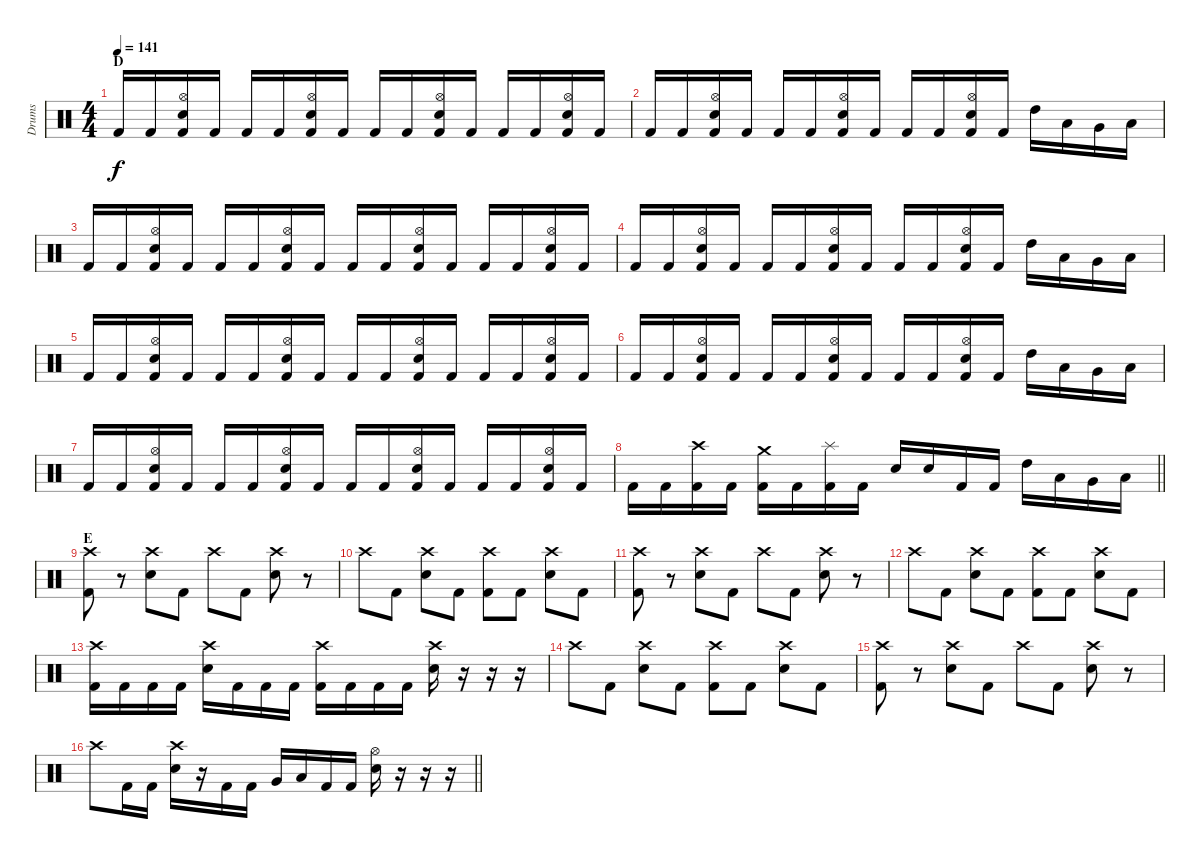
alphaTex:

\track ("Drums" "Drums") {instrument percussion}
\staff {score}
\articulation defaults
\ts (4 4)
\section ("" "D")
\tempo 141
\clef neutral
\ks c "Kick (hit) 2".16{dy f} "Kick (hit) 2".16
("Hi-Hat (open)" "Electric Snare (hit)" "Kick (hit) 2").16 "Kick (hit) 2".16 "Kick (hit) 2".16 "Kick (hit) 2".16 ("Hi-Hat (open)" "Electric Snare (hit)" "Kick (hit) 2").16 "Kick (hit) 2".16 "Kick (hit) 2".16 "Kick (hit) 2".16 ("Hi-Hat (open)" "Electric Snare (hit)" "Kick (hit) 2").16 "Kick (hit) 2".16 "Kick (hit) 2".16 "Kick (hit) 2".16 ("Hi-Hat (open)" "Electric Snare (hit)" "Kick (hit) 2").16 "Kick (hit) 2".16 |
"Kick (hit) 2".16 "Kick (hit) 2".16 ("Hi-Hat (open)" "Electric Snare (hit)" "Kick (hit) 2").16 "Kick (hit) 2".16 "Kick (hit) 2".16 "Kick (hit) 2".16 ("Hi-Hat (open)" "Electric Snare (hit)" "Kick (hit) 2").16 "Kick (hit) 2".16 "Kick (hit) 2".16 "Kick (hit) 2".16 ("Hi-Hat (open)" "Electric Snare (hit)" "Kick (hit) 2").16 "Kick (hit) 2".16 "High Tom (hit)".16 "Low Tom (hit)".16 "Very Low Tom (hit)".16 "Low Floor Tom (hit)".16 |
"Kick (hit) 2".16 "Kick (hit) 2".16 ("Hi-Hat (open)" "Electric Snare (hit)" "Kick (hit) 2").16 "Kick (hit) 2".16 "Kick (hit) 2".16 "Kick (hit) 2".16 ("Hi-Hat (open)" "Electric Snare (hit)" "Kick (hit) 2").16 "Kick (hit) 2".16 "Kick (hit) 2".16 "Kick (hit) 2".16 ("Hi-Hat (open)" "Electric Snare (hit)" "Kick (hit) 2").16 "Kick (hit) 2".16 "Kick (hit) 2".16 "Kick (hit) 2".16 ("Hi-Hat (open)" "Electric Snare (hit)" "Kick (hit) 2").16 "Kick (hit) 2".16 |
"Kick (hit) 2".16 "Kick (hit) 2".16 ("Hi-Hat (open)" "Electric Snare (hit)" "Kick (hit) 2").16 "Kick (hit) 2".16 "Kick (hit) 2".16 "Kick (hit) 2".16 ("Hi-Hat (open)" "Electric Snare (hit)" "Kick (hit) 2").16 "Kick (hit) 2".16 "Kick (hit) 2".16 "Kick (hit) 2".16 ("Hi-Hat (open)" "Electric Snare (hit)" "Kick (hit) 2").16 "Kick (hit) 2".16 "High Tom (hit)".16 "Low Tom (hit)".16 "Very Low Tom (hit)".16 "Low Floor Tom (hit)".16 |
"Kick (hit) 2".16 "Kick (hit) 2".16 ("Hi-Hat (open)" "Electric Snare (hit)" "Kick (hit) 2").16 "Kick (hit) 2".16 "Kick (hit) 2".16 "Kick (hit) 2".16 ("Hi-Hat (open)" "Electric Snare (hit)" "Kick (hit) 2").16 "Kick (hit) 2".16 "Kick (hit) 2".16 "Kick (hit) 2".16 ("Hi-Hat (open)" "Electric Snare (hit)" "Kick (hit) 2").16 "Kick (hit) 2".16 "Kick (hit) 2".16 "Kick (hit) 2".16 ("Hi-Hat (open)" "Electric Snare (hit)" "Kick (hit) 2").16 "Kick (hit) 2".16 |
"Kick (hit) 2".16 "Kick (hit) 2".16 ("Hi-Hat (open)" "Electric Snare (hit)" "Kick (hit) 2").16 "Kick (hit) 2".16 "Kick (hit) 2".16 "Kick (hit) 2".16 ("Hi-Hat (open)" "Electric Snare (hit)" "Kick (hit) 2").16 "Kick (hit) 2".16 "Kick (hit) 2".16 "Kick (hit) 2".16 ("Hi-Hat (open)" "Electric Snare (hit)" "Kick (hit) 2").16 "Kick (hit) 2".16 "High Tom (hit)".16 "Low Tom (hit)".16 "Very Low Tom (hit)".16 "Low Floor Tom (hit)".16 |
"Kick (hit) 2".16 "Kick (hit) 2".16 ("Hi-Hat (open)" "Electric Snare (hit)" "Kick (hit) 2").16 "Kick (hit) 2".16 "Kick (hit) 2".16 "Kick (hit) 2".16 ("Hi-Hat (open)" "Electric Snare (hit)" "Kick (hit) 2").16 "Kick (hit) 2".16 "Kick (hit) 2".16 "Kick (hit) 2".16 ("Hi-Hat (open)" "Electric Snare (hit)" "Kick (hit) 2").16 "Kick (hit) 2".16 "Kick (hit) 2".16 "Kick (hit) 2".16 ("Hi-Hat (open)" "Electric Snare (hit)" "Kick (hit) 2").16 "Kick (hit) 2".16 |
\barLineRight lightlight "Kick (hit) 2".16 "Kick (hit) 2".16
("Crash high (hit)" "Kick (hit) 2").16 "Kick (hit) 2".16 ("Crash medium (hit)" "Kick (hit) 2").16 "Kick (hit) 2".16 ("Splash (hit)" "Kick (hit) 2").16 "Kick (hit) 2".16 "Electric Snare (hit)".16 "Electric Snare (hit)".16 "Kick (hit) 2".16 "Kick (hit) 2".16 "High Tom (hit)".16 "Low Tom (hit)".16 "Very Low Tom (hit)".16 "Low Floor Tom (hit)".16 |
\section ("" "E")
("Crash high (hit)" "Kick (hit) 2").8 r.8 ("Crash high (hit)" "Electric Snare (hit)").8 "Kick (hit) 2".8 "Crash high (hit)".8 "Kick (hit) 2".8 ("Crash high (hit)" "Electric Snare (hit)").8 r.8 |
"Crash high (hit)".8 "Kick (hit) 2".8 ("Crash high (hit)" "Electric Snare (hit)").8 "Kick (hit) 2".8 ("Crash high (hit)" "Kick (hit) 2").8 "Kick (hit) 2".8 ("Crash high (hit)" "Electric Snare (hit)").8 "Kick (hit) 2".8 |
("Crash high (hit)" "Kick (hit) 2").8 r.8 ("Crash high (hit)" "Electric Snare (hit)").8 "Kick (hit) 2".8 "Crash high (hit)".8 "Kick (hit) 2".8 ("Crash high (hit)" "Electric Snare (hit)").8 r.8 |
"Crash high (hit)".8 "Kick (hit) 2".8 ("Crash high (hit)" "Electric Snare (hit)").8 "Kick (hit) 2".8 ("Crash high (hit)" "Kick (hit) 2").8 "Kick (hit) 2".8 ("Crash high (hit)" "Electric Snare (hit)").8 "Kick (hit) 2".8 |
("Crash high (hit)" "Kick (hit) 2").16 "Kick (hit) 2".16 "Kick (hit) 2".16 "Kick (hit) 2".16 ("Crash high (hit)" "Electric Snare (hit)").16 "Kick (hit) 2".16 "Kick (hit) 2".16 "Kick (hit) 2".16 ("Crash high (hit)" "Kick (hit) 2").16 "Kick (hit) 2".16 "Kick (hit) 2".16 "Kick (hit) 2".16 ("Crash high (hit)" "Electric Snare (hit)").16 r.16 r.16 r.16 |
"Crash high (hit)".8 "Kick (hit) 2".8 ("Crash high (hit)" "Electric Snare (hit)").8 "Kick (hit) 2".8 ("Crash high (hit)" "Kick (hit) 2").8 "Kick (hit) 2".8 ("Crash high (hit)" "Electric Snare (hit)").8 "Kick (hit) 2".8 |
("Crash high (hit)" "Kick (hit) 2").8 r.8 ("Crash high (hit)" "Electric Snare (hit)").8 "Kick (hit) 2".8 "Crash high (hit)".8 "Kick (hit) 2".8 ("Crash high (hit)" "Electric Snare (hit)").8 r.8 |
\barLineRight lightlight "Crash high (hit)".8 "Kick (hit) 2".16 "Kick (hit) 2".16
("Crash high (hit)" "Electric Snare (hit)").16 r.16 "Kick (hit) 2".16 "Kick (hit) 2".16 "Very Low Tom (hit)".16 "Low Floor Tom (hit)".16 "Kick (hit) 2".16 "Kick (hit) 2".16 ("Hi-Hat (open)" "Electric Snare (hit)").16 r.16 r.16 r.16
